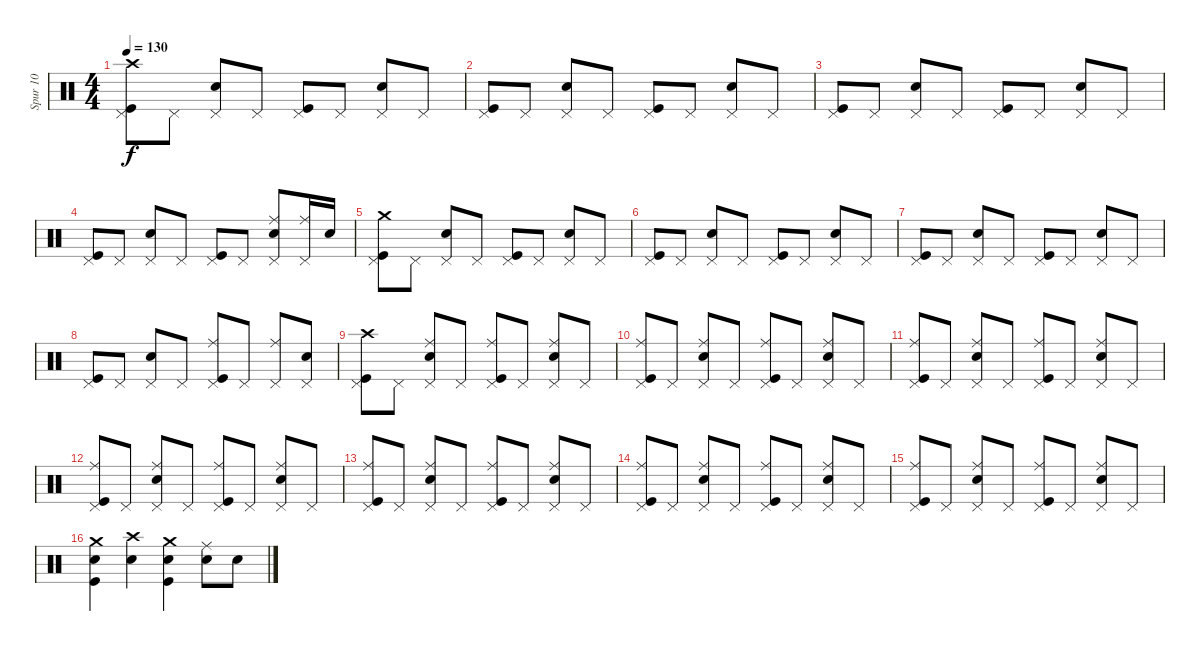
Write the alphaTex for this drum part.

\track ("Spur 10" "Spur 10") {instrument percussion}
\staff {score}
\articulation defaults
\ts (4 4)
\tempo 130
\clef neutral
\ks c
("Crash high (hit)" "Pedal Hi-Hat (hit)" "Kick (hit)").8{dy f} "Pedal Hi-Hat (hit)".8 ("Pedal Hi-Hat (hit)" "Electric Snare (hit)").8 "Pedal Hi-Hat (hit)".8 ("Pedal Hi-Hat (hit)" "Kick (hit)").8 "Pedal Hi-Hat (hit)".8 ("Pedal Hi-Hat (hit)" "Electric Snare (hit)").8 "Pedal Hi-Hat (hit)".8 |
("Pedal Hi-Hat (hit)" "Kick (hit)").8 "Pedal Hi-Hat (hit)".8 ("Pedal Hi-Hat (hit)" "Electric Snare (hit)").8 "Pedal Hi-Hat (hit)".8 ("Pedal Hi-Hat (hit)" "Kick (hit)").8 "Pedal Hi-Hat (hit)".8 ("Pedal Hi-Hat (hit)" "Electric Snare (hit)").8 "Pedal Hi-Hat (hit)".8 |
("Pedal Hi-Hat (hit)" "Kick (hit)").8 "Pedal Hi-Hat (hit)".8 ("Pedal Hi-Hat (hit)" "Electric Snare (hit)").8 "Pedal Hi-Hat (hit)".8 ("Pedal Hi-Hat (hit)" "Kick (hit)").8 "Pedal Hi-Hat (hit)".8 ("Pedal Hi-Hat (hit)" "Electric Snare (hit)").8 "Pedal Hi-Hat (hit)".8 |
("Pedal Hi-Hat (hit)" "Kick (hit)").8 "Pedal Hi-Hat (hit)".8 ("Pedal Hi-Hat (hit)" "Electric Snare (hit)").8 "Pedal Hi-Hat (hit)".8 ("Pedal Hi-Hat (hit)" "Kick (hit)").8 "Pedal Hi-Hat (hit)".8 ("Ride (middle)" "Pedal Hi-Hat (hit)" "Electric Snare (hit)").8 ("Ride (middle)" "Pedal Hi-Hat (hit)").16 "Electric Snare (hit)".16 |
("Crash medium (hit)" "Pedal Hi-Hat (hit)" "Kick (hit)").8 "Pedal Hi-Hat (hit)".8 ("Pedal Hi-Hat (hit)" "Electric Snare (hit)").8 "Pedal Hi-Hat (hit)".8 ("Pedal Hi-Hat (hit)" "Kick (hit)").8 "Pedal Hi-Hat (hit)".8 ("Pedal Hi-Hat (hit)" "Electric Snare (hit)").8 "Pedal Hi-Hat (hit)".8 |
("Pedal Hi-Hat (hit)" "Kick (hit)").8 "Pedal Hi-Hat (hit)".8 ("Pedal Hi-Hat (hit)" "Electric Snare (hit)").8 "Pedal Hi-Hat (hit)".8 ("Pedal Hi-Hat (hit)" "Kick (hit)").8 "Pedal Hi-Hat (hit)".8 ("Pedal Hi-Hat (hit)" "Electric Snare (hit)").8 "Pedal Hi-Hat (hit)".8 |
("Pedal Hi-Hat (hit)" "Kick (hit)").8 "Pedal Hi-Hat (hit)".8 ("Pedal Hi-Hat (hit)" "Electric Snare (hit)").8 "Pedal Hi-Hat (hit)".8 ("Pedal Hi-Hat (hit)" "Kick (hit)").8 "Pedal Hi-Hat (hit)".8 ("Pedal Hi-Hat (hit)" "Electric Snare (hit)").8 "Pedal Hi-Hat (hit)".8 |
("Pedal Hi-Hat (hit)" "Kick (hit)").8 "Pedal Hi-Hat (hit)".8 ("Pedal Hi-Hat (hit)" "Electric Snare (hit)").8 "Pedal Hi-Hat (hit)".8 ("Ride (middle)" "Pedal Hi-Hat (hit)" "Kick (hit)").8 "Pedal Hi-Hat (hit)".8 ("Ride (middle)" "Pedal Hi-Hat (hit)").8 ("Electric Snare (hit)" "Pedal Hi-Hat (hit)").8 |
("Crash high (hit)" "Pedal Hi-Hat (hit)" "Kick (hit)").8 "Pedal Hi-Hat (hit)".8 ("Ride (middle)" "Pedal Hi-Hat (hit)" "Electric Snare (hit)").8 "Pedal Hi-Hat (hit)".8 ("Ride (middle)" "Pedal Hi-Hat (hit)" "Kick (hit)").8 "Pedal Hi-Hat (hit)".8 ("Ride (middle)" "Pedal Hi-Hat (hit)" "Electric Snare (hit)").8 "Pedal Hi-Hat (hit)".8 |
("Ride (middle)" "Pedal Hi-Hat (hit)" "Kick (hit)").8 "Pedal Hi-Hat (hit)".8 ("Ride (middle)" "Pedal Hi-Hat (hit)" "Electric Snare (hit)").8 "Pedal Hi-Hat (hit)".8 ("Ride (middle)" "Pedal Hi-Hat (hit)" "Kick (hit)").8 "Pedal Hi-Hat (hit)".8 ("Ride (middle)" "Pedal Hi-Hat (hit)" "Electric Snare (hit)").8 "Pedal Hi-Hat (hit)".8 |
("Ride (middle)" "Pedal Hi-Hat (hit)" "Kick (hit)").8 "Pedal Hi-Hat (hit)".8 ("Ride (middle)" "Pedal Hi-Hat (hit)" "Electric Snare (hit)").8 "Pedal Hi-Hat (hit)".8 ("Ride (middle)" "Pedal Hi-Hat (hit)" "Kick (hit)").8 "Pedal Hi-Hat (hit)".8 ("Ride (middle)" "Pedal Hi-Hat (hit)" "Electric Snare (hit)").8 "Pedal Hi-Hat (hit)".8 |
("Ride (middle)" "Pedal Hi-Hat (hit)" "Kick (hit)").8 "Pedal Hi-Hat (hit)".8 ("Ride (middle)" "Pedal Hi-Hat (hit)" "Electric Snare (hit)").8 "Pedal Hi-Hat (hit)".8 ("Ride (middle)" "Pedal Hi-Hat (hit)" "Kick (hit)").8 "Pedal Hi-Hat (hit)".8 ("Ride (middle)" "Pedal Hi-Hat (hit)" "Electric Snare (hit)").8 "Pedal Hi-Hat (hit)".8 |
("Ride (middle)" "Pedal Hi-Hat (hit)" "Kick (hit)").8 "Pedal Hi-Hat (hit)".8 ("Ride (middle)" "Pedal Hi-Hat (hit)" "Electric Snare (hit)").8 "Pedal Hi-Hat (hit)".8 ("Ride (middle)" "Pedal Hi-Hat (hit)" "Kick (hit)").8 "Pedal Hi-Hat (hit)".8 ("Ride (middle)" "Pedal Hi-Hat (hit)" "Electric Snare (hit)").8 "Pedal Hi-Hat (hit)".8 |
("Ride (middle)" "Pedal Hi-Hat (hit)" "Kick (hit)").8 "Pedal Hi-Hat (hit)".8 ("Ride (middle)" "Pedal Hi-Hat (hit)" "Electric Snare (hit)").8 "Pedal Hi-Hat (hit)".8 ("Ride (middle)" "Pedal Hi-Hat (hit)" "Kick (hit)").8 "Pedal Hi-Hat (hit)".8 ("Ride (middle)" "Pedal Hi-Hat (hit)" "Electric Snare (hit)").8 "Pedal Hi-Hat (hit)".8 |
("Ride (middle)" "Pedal Hi-Hat (hit)" "Kick (hit)").8 "Pedal Hi-Hat (hit)".8 ("Ride (middle)" "Pedal Hi-Hat (hit)" "Electric Snare (hit)").8 "Pedal Hi-Hat (hit)".8 ("Ride (middle)" "Pedal Hi-Hat (hit)" "Kick (hit)").8 "Pedal Hi-Hat (hit)".8 ("Ride (middle)" "Pedal Hi-Hat (hit)" "Electric Snare (hit)").8 "Pedal Hi-Hat (hit)".8 |
("Electric Snare (hit)" "Crash medium (hit)" "Kick (hit)").4 ("Crash high (hit)" "Electric Snare (hit)").4 ("Electric Snare (hit)" "Crash medium (hit)" "Kick (hit)").4 ("Ride (middle)" "Electric Snare (hit)").8 "Electric Snare (hit)".8
